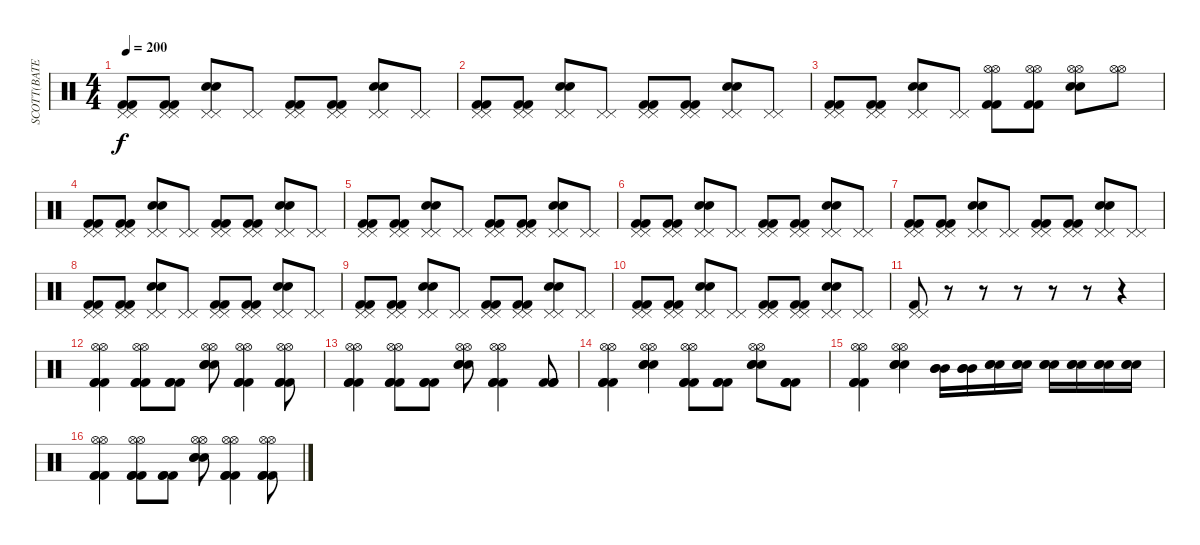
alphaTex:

\track ("SCOTT(BATERIA)" "SCOTT(BATE") {instrument percussion}
\staff {score}
\articulation defaults
\ts (4 4)
\tempo 200
\clef neutral
\ks c
("Kick (hit) 2" "Kick (hit) 2" "Pedal Hi-Hat (hit)" "Pedal Hi-Hat (hit)").8{dy f} ("Kick (hit) 2" "Kick (hit) 2" "Pedal Hi-Hat (hit)" "Pedal Hi-Hat (hit)").8 ("Snare (hit) 2" "Snare (hit) 2" "Pedal Hi-Hat (hit)" "Pedal Hi-Hat (hit)").8 ("Pedal Hi-Hat (hit)" "Pedal Hi-Hat (hit)").8 ("Kick (hit) 2" "Kick (hit) 2" "Pedal Hi-Hat (hit)" "Pedal Hi-Hat (hit)").8 ("Kick (hit) 2" "Kick (hit) 2" "Pedal Hi-Hat (hit)" "Pedal Hi-Hat (hit)").8 ("Snare (hit) 2" "Snare (hit) 2" "Pedal Hi-Hat (hit)" "Pedal Hi-Hat (hit)").8 ("Pedal Hi-Hat (hit)" "Pedal Hi-Hat (hit)").8 |
("Kick (hit) 2" "Kick (hit) 2" "Pedal Hi-Hat (hit)" "Pedal Hi-Hat (hit)").8 ("Kick (hit) 2" "Kick (hit) 2" "Pedal Hi-Hat (hit)" "Pedal Hi-Hat (hit)").8 ("Snare (hit) 2" "Snare (hit) 2" "Pedal Hi-Hat (hit)" "Pedal Hi-Hat (hit)").8 ("Pedal Hi-Hat (hit)" "Pedal Hi-Hat (hit)").8 ("Kick (hit) 2" "Kick (hit) 2" "Pedal Hi-Hat (hit)" "Pedal Hi-Hat (hit)").8 ("Kick (hit) 2" "Kick (hit) 2" "Pedal Hi-Hat (hit)" "Pedal Hi-Hat (hit)").8 ("Snare (hit) 2" "Snare (hit) 2" "Pedal Hi-Hat (hit)" "Pedal Hi-Hat (hit)").8 ("Pedal Hi-Hat (hit)" "Pedal Hi-Hat (hit)").8 |
("Kick (hit) 2" "Kick (hit) 2" "Pedal Hi-Hat (hit)" "Pedal Hi-Hat (hit)").8 ("Kick (hit) 2" "Kick (hit) 2" "Pedal Hi-Hat (hit)" "Pedal Hi-Hat (hit)").8 ("Snare (hit) 2" "Snare (hit) 2" "Pedal Hi-Hat (hit)" "Pedal Hi-Hat (hit)").8 ("Pedal Hi-Hat (hit)" "Pedal Hi-Hat (hit)").8 ("Kick (hit) 2" "Kick (hit) 2" "Hi-Hat (open)" "Hi-Hat (open)").8 ("Kick (hit) 2" "Kick (hit) 2" "Hi-Hat (open)" "Hi-Hat (open)").8 ("Snare (hit) 2" "Snare (hit) 2" "Hi-Hat (open)" "Hi-Hat (open)").8 ("Hi-Hat (open)" "Hi-Hat (open)").8 |
("Kick (hit) 2" "Kick (hit) 2" "Pedal Hi-Hat (hit)" "Pedal Hi-Hat (hit)").8 ("Kick (hit) 2" "Kick (hit) 2" "Pedal Hi-Hat (hit)" "Pedal Hi-Hat (hit)").8 ("Snare (hit) 2" "Snare (hit) 2" "Pedal Hi-Hat (hit)" "Pedal Hi-Hat (hit)").8 ("Pedal Hi-Hat (hit)" "Pedal Hi-Hat (hit)").8 ("Kick (hit) 2" "Kick (hit) 2" "Pedal Hi-Hat (hit)" "Pedal Hi-Hat (hit)").8 ("Kick (hit) 2" "Kick (hit) 2" "Pedal Hi-Hat (hit)" "Pedal Hi-Hat (hit)").8 ("Snare (hit) 2" "Snare (hit) 2" "Pedal Hi-Hat (hit)" "Pedal Hi-Hat (hit)").8 ("Pedal Hi-Hat (hit)" "Pedal Hi-Hat (hit)").8 |
("Kick (hit) 2" "Kick (hit) 2" "Pedal Hi-Hat (hit)" "Pedal Hi-Hat (hit)").8 ("Kick (hit) 2" "Kick (hit) 2" "Pedal Hi-Hat (hit)" "Pedal Hi-Hat (hit)").8 ("Snare (hit) 2" "Snare (hit) 2" "Pedal Hi-Hat (hit)" "Pedal Hi-Hat (hit)").8 ("Pedal Hi-Hat (hit)" "Pedal Hi-Hat (hit)").8 ("Kick (hit) 2" "Kick (hit) 2" "Pedal Hi-Hat (hit)" "Pedal Hi-Hat (hit)").8 ("Kick (hit) 2" "Kick (hit) 2" "Pedal Hi-Hat (hit)" "Pedal Hi-Hat (hit)").8 ("Snare (hit) 2" "Snare (hit) 2" "Pedal Hi-Hat (hit)" "Pedal Hi-Hat (hit)").8 ("Pedal Hi-Hat (hit)" "Pedal Hi-Hat (hit)").8 |
("Kick (hit) 2" "Kick (hit) 2" "Pedal Hi-Hat (hit)" "Pedal Hi-Hat (hit)").8 ("Kick (hit) 2" "Kick (hit) 2" "Pedal Hi-Hat (hit)" "Pedal Hi-Hat (hit)").8 ("Snare (hit) 2" "Snare (hit) 2" "Pedal Hi-Hat (hit)" "Pedal Hi-Hat (hit)").8 ("Pedal Hi-Hat (hit)" "Pedal Hi-Hat (hit)").8 ("Kick (hit) 2" "Kick (hit) 2" "Pedal Hi-Hat (hit)" "Pedal Hi-Hat (hit)").8 ("Kick (hit) 2" "Kick (hit) 2" "Pedal Hi-Hat (hit)" "Pedal Hi-Hat (hit)").8 ("Snare (hit) 2" "Snare (hit) 2" "Pedal Hi-Hat (hit)" "Pedal Hi-Hat (hit)").8 ("Pedal Hi-Hat (hit)" "Pedal Hi-Hat (hit)").8 |
("Kick (hit) 2" "Kick (hit) 2" "Pedal Hi-Hat (hit)" "Pedal Hi-Hat (hit)").8 ("Kick (hit) 2" "Kick (hit) 2" "Pedal Hi-Hat (hit)" "Pedal Hi-Hat (hit)").8 ("Snare (hit) 2" "Snare (hit) 2" "Pedal Hi-Hat (hit)" "Pedal Hi-Hat (hit)").8 ("Pedal Hi-Hat (hit)" "Pedal Hi-Hat (hit)").8 ("Kick (hit) 2" "Kick (hit) 2" "Pedal Hi-Hat (hit)" "Pedal Hi-Hat (hit)").8 ("Kick (hit) 2" "Kick (hit) 2" "Pedal Hi-Hat (hit)" "Pedal Hi-Hat (hit)").8 ("Snare (hit) 2" "Snare (hit) 2" "Pedal Hi-Hat (hit)" "Pedal Hi-Hat (hit)").8 ("Pedal Hi-Hat (hit)" "Pedal Hi-Hat (hit)").8 |
("Kick (hit) 2" "Kick (hit) 2" "Pedal Hi-Hat (hit)" "Pedal Hi-Hat (hit)").8 ("Kick (hit) 2" "Kick (hit) 2" "Pedal Hi-Hat (hit)" "Pedal Hi-Hat (hit)").8 ("Snare (hit) 2" "Snare (hit) 2" "Pedal Hi-Hat (hit)" "Pedal Hi-Hat (hit)").8 ("Pedal Hi-Hat (hit)" "Pedal Hi-Hat (hit)").8 ("Kick (hit) 2" "Kick (hit) 2" "Pedal Hi-Hat (hit)" "Pedal Hi-Hat (hit)").8 ("Kick (hit) 2" "Kick (hit) 2" "Pedal Hi-Hat (hit)" "Pedal Hi-Hat (hit)").8 ("Snare (hit) 2" "Snare (hit) 2" "Pedal Hi-Hat (hit)" "Pedal Hi-Hat (hit)").8 ("Pedal Hi-Hat (hit)" "Pedal Hi-Hat (hit)").8 |
("Kick (hit) 2" "Kick (hit) 2" "Pedal Hi-Hat (hit)" "Pedal Hi-Hat (hit)").8 ("Kick (hit) 2" "Kick (hit) 2" "Pedal Hi-Hat (hit)" "Pedal Hi-Hat (hit)").8 ("Snare (hit) 2" "Snare (hit) 2" "Pedal Hi-Hat (hit)" "Pedal Hi-Hat (hit)").8 ("Pedal Hi-Hat (hit)" "Pedal Hi-Hat (hit)").8 ("Kick (hit) 2" "Kick (hit) 2" "Pedal Hi-Hat (hit)" "Pedal Hi-Hat (hit)").8 ("Kick (hit) 2" "Kick (hit) 2" "Pedal Hi-Hat (hit)" "Pedal Hi-Hat (hit)").8 ("Snare (hit) 2" "Snare (hit) 2" "Pedal Hi-Hat (hit)" "Pedal Hi-Hat (hit)").8 ("Pedal Hi-Hat (hit)" "Pedal Hi-Hat (hit)").8 |
("Kick (hit) 2" "Kick (hit) 2" "Pedal Hi-Hat (hit)" "Pedal Hi-Hat (hit)").8 ("Kick (hit) 2" "Kick (hit) 2" "Pedal Hi-Hat (hit)" "Pedal Hi-Hat (hit)").8 ("Snare (hit) 2" "Snare (hit) 2" "Pedal Hi-Hat (hit)" "Pedal Hi-Hat (hit)").8 ("Pedal Hi-Hat (hit)" "Pedal Hi-Hat (hit)").8 ("Kick (hit) 2" "Kick (hit) 2" "Pedal Hi-Hat (hit)" "Pedal Hi-Hat (hit)").8 ("Kick (hit) 2" "Kick (hit) 2" "Pedal Hi-Hat (hit)" "Pedal Hi-Hat (hit)").8 ("Snare (hit) 2" "Snare (hit) 2" "Pedal Hi-Hat (hit)" "Pedal Hi-Hat (hit)").8 ("Pedal Hi-Hat (hit)" "Pedal Hi-Hat (hit)").8 |
("Kick (hit) 2" "Pedal Hi-Hat (hit)" "Pedal Hi-Hat (hit)").8 r.8 r.8 r.8 r.8 r.8 r.4 |
("Kick (hit) 2" "Kick (hit) 2" "Kick (hit) 2" "Hi-Hat (open)" "Hi-Hat (open)").4 ("Kick (hit) 2" "Kick (hit) 2" "Kick (hit) 2" "Hi-Hat (open)" "Hi-Hat (open)").8 ("Kick (hit) 2" "Kick (hit) 2" "Kick (hit) 2").8 ("Snare (hit) 2" "Snare (hit) 2" "Snare (hit) 2" "Hi-Hat (open)" "Hi-Hat (open)").8 ("Kick (hit) 2" "Kick (hit) 2" "Kick (hit) 2" "Hi-Hat (open)" "Hi-Hat (open)").4 ("Kick (hit) 2" "Kick (hit) 2" "Kick (hit) 2" "Hi-Hat (open)" "Hi-Hat (open)").8 |
("Kick (hit) 2" "Kick (hit) 2" "Kick (hit) 2" "Hi-Hat (open)" "Hi-Hat (open)").4 ("Kick (hit) 2" "Kick (hit) 2" "Kick (hit) 2" "Hi-Hat (open)" "Hi-Hat (open)").8 ("Kick (hit) 2" "Kick (hit) 2" "Kick (hit) 2").8 ("Snare (hit) 2" "Snare (hit) 2" "Snare (hit) 2" "Hi-Hat (open)" "Hi-Hat (open)").8 ("Kick (hit) 2" "Kick (hit) 2" "Kick (hit) 2" "Hi-Hat (open)" "Hi-Hat (open)").4 ("Kick (hit) 2" "Kick (hit) 2" "Kick (hit) 2").8 |
("Kick (hit) 2" "Kick (hit) 2" "Kick (hit) 2" "Hi-Hat (open)" "Hi-Hat (open)").4 ("Snare (hit) 2" "Snare (hit) 2" "Snare (hit) 2" "Hi-Hat (open)" "Hi-Hat (open)").4 ("Kick (hit) 2" "Kick (hit) 2" "Kick (hit) 2" "Hi-Hat (open)" "Hi-Hat (open)").8 ("Kick (hit) 2" "Kick (hit) 2" "Kick (hit) 2").8 ("Snare (hit) 2" "Snare (hit) 2" "Snare (hit) 2" "Hi-Hat (open)" "Hi-Hat (open)").8 ("Kick (hit) 2" "Kick (hit) 2" "Kick (hit) 2").8 |
("Kick (hit) 2" "Kick (hit) 2" "Kick (hit) 2" "Hi-Hat (open)" "Hi-Hat (open)").4 ("Snare (hit) 2" "Snare (hit) 2" "Snare (hit) 2" "Hi-Hat (open)" "Hi-Hat (open)").4 ("Mid Tom (hit)" "Mid Tom (hit)" "Mid Tom (hit)").16 ("Mid Tom (hit)" "Mid Tom (hit)" "Mid Tom (hit)").16 ("Snare (hit) 2" "Snare (hit) 2" "Snare (hit) 2").16 ("Snare (hit) 2" "Snare (hit) 2" "Snare (hit) 2").16 ("Snare (hit) 2" "Snare (hit) 2" "Snare (hit) 2").16 ("Snare (hit) 2" "Snare (hit) 2" "Snare (hit) 2").16 ("Snare (hit) 2" "Snare (hit) 2" "Snare (hit) 2").16 ("Snare (hit) 2" "Snare (hit) 2" "Snare (hit) 2").16 |
("Kick (hit) 2" "Kick (hit) 2" "Kick (hit) 2" "Hi-Hat (open)" "Hi-Hat (open)").4 ("Kick (hit) 2" "Kick (hit) 2" "Kick (hit) 2" "Hi-Hat (open)" "Hi-Hat (open)").8 ("Kick (hit) 2" "Kick (hit) 2" "Kick (hit) 2").8 ("Snare (hit) 2" "Snare (hit) 2" "Snare (hit) 2" "Hi-Hat (open)" "Hi-Hat (open)").8 ("Kick (hit) 2" "Kick (hit) 2" "Kick (hit) 2" "Hi-Hat (open)" "Hi-Hat (open)").4 ("Kick (hit) 2" "Kick (hit) 2" "Kick (hit) 2" "Hi-Hat (open)" "Hi-Hat (open)").8
